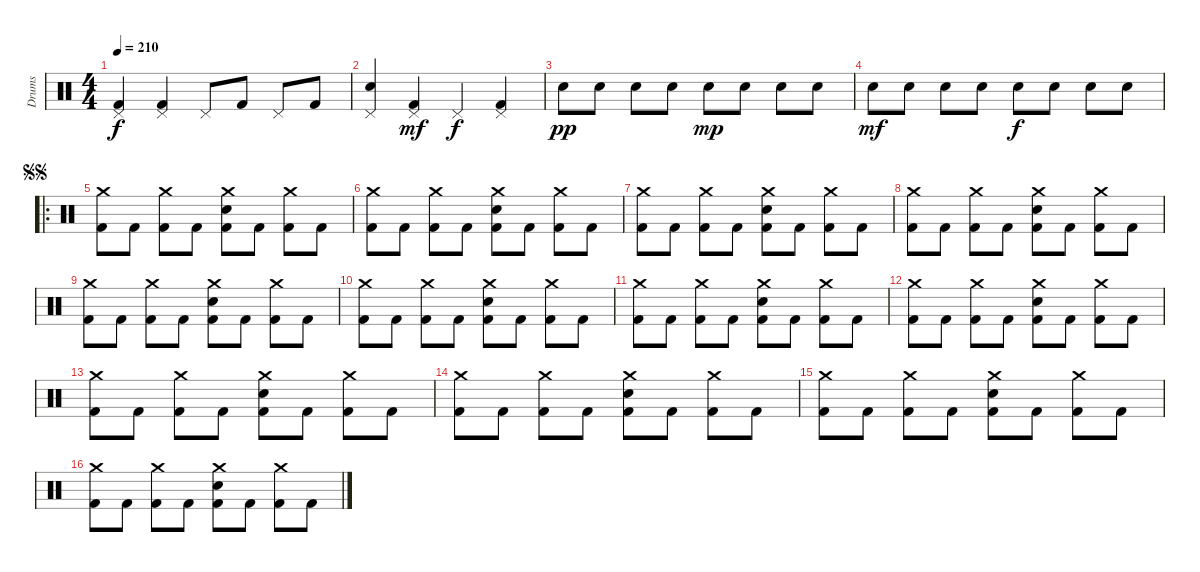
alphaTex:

\track ("Drums" "Drums") {instrument percussion}
\staff {score}
\articulation defaults
\ts (4 4)
\tempo 210
\clef neutral
\ks c
("Pedal Hi-Hat (hit)" "Kick (hit) 2").4{dy f} ("Pedal Hi-Hat (hit)" "Kick (hit) 2").4 "Pedal Hi-Hat (hit)".8 "Kick (hit) 2".8 "Pedal Hi-Hat (hit)".8 "Kick (hit) 2".8 |
("Pedal Hi-Hat (hit)" "Electric Snare (hit)").4 ("Pedal Hi-Hat (hit)" "Kick (hit) 2").4{dy mf} "Pedal Hi-Hat (hit)".4{dy f} ("Pedal Hi-Hat (hit)" "Kick (hit) 2").4 |
"Electric Snare (hit)".8{dy pp} "Electric Snare (hit)".8 "Electric Snare (hit)".8 "Electric Snare (hit)".8 "Electric Snare (hit)".8{dy mp} "Electric Snare (hit)".8 "Electric Snare (hit)".8 "Electric Snare (hit)".8 |
"Electric Snare (hit)".8{dy mf} "Electric Snare (hit)".8 "Electric Snare (hit)".8 "Electric Snare (hit)".8 "Electric Snare (hit)".8{dy f} "Electric Snare (hit)".8 "Electric Snare (hit)".8 "Electric Snare (hit)".8 |
\ro
\jump segnosegno
("Crash medium (hit)" "Kick (hit) 2").8 "Kick (hit) 2".8 ("Crash medium (hit)" "Kick (hit) 2").8 "Kick (hit) 2".8 ("Crash medium (hit)" "Electric Snare (hit)" "Kick (hit) 2").8 "Kick (hit) 2".8 ("Crash medium (hit)" "Kick (hit) 2").8 "Kick (hit) 2".8 |
("Crash medium (hit)" "Kick (hit) 2").8 "Kick (hit) 2".8 ("Crash medium (hit)" "Kick (hit) 2").8 "Kick (hit) 2".8 ("Crash medium (hit)" "Electric Snare (hit)" "Kick (hit) 2").8 "Kick (hit) 2".8 ("Crash medium (hit)" "Kick (hit) 2").8 "Kick (hit) 2".8 |
("Crash medium (hit)" "Kick (hit) 2").8 "Kick (hit) 2".8 ("Crash medium (hit)" "Kick (hit) 2").8 "Kick (hit) 2".8 ("Crash medium (hit)" "Electric Snare (hit)" "Kick (hit) 2").8 "Kick (hit) 2".8 ("Crash medium (hit)" "Kick (hit) 2").8 "Kick (hit) 2".8 |
("Crash medium (hit)" "Kick (hit) 2").8 "Kick (hit) 2".8 ("Crash medium (hit)" "Kick (hit) 2").8 "Kick (hit) 2".8 ("Crash medium (hit)" "Electric Snare (hit)" "Kick (hit) 2").8 "Kick (hit) 2".8 ("Crash medium (hit)" "Kick (hit) 2").8 "Kick (hit) 2".8 |
("Crash medium (hit)" "Kick (hit) 2").8 "Kick (hit) 2".8 ("Crash medium (hit)" "Kick (hit) 2").8 "Kick (hit) 2".8 ("Crash medium (hit)" "Electric Snare (hit)" "Kick (hit) 2").8 "Kick (hit) 2".8 ("Crash medium (hit)" "Kick (hit) 2").8 "Kick (hit) 2".8 |
("Crash medium (hit)" "Kick (hit) 2").8 "Kick (hit) 2".8 ("Crash medium (hit)" "Kick (hit) 2").8 "Kick (hit) 2".8 ("Crash medium (hit)" "Electric Snare (hit)" "Kick (hit) 2").8 "Kick (hit) 2".8 ("Crash medium (hit)" "Kick (hit) 2").8 "Kick (hit) 2".8 |
("Crash medium (hit)" "Kick (hit) 2").8 "Kick (hit) 2".8 ("Crash medium (hit)" "Kick (hit) 2").8 "Kick (hit) 2".8 ("Crash medium (hit)" "Electric Snare (hit)" "Kick (hit) 2").8 "Kick (hit) 2".8 ("Crash medium (hit)" "Kick (hit) 2").8 "Kick (hit) 2".8 |
("Crash medium (hit)" "Kick (hit) 2").8 "Kick (hit) 2".8 ("Crash medium (hit)" "Kick (hit) 2").8 "Kick (hit) 2".8 ("Crash medium (hit)" "Electric Snare (hit)" "Kick (hit) 2").8 "Kick (hit) 2".8 ("Crash medium (hit)" "Kick (hit) 2").8 "Kick (hit) 2".8 |
("Crash medium (hit)" "Kick (hit) 2").8 "Kick (hit) 2".8 ("Crash medium (hit)" "Kick (hit) 2").8 "Kick (hit) 2".8 ("Crash medium (hit)" "Electric Snare (hit)" "Kick (hit) 2").8 "Kick (hit) 2".8 ("Crash medium (hit)" "Kick (hit) 2").8 "Kick (hit) 2".8 |
("Crash medium (hit)" "Kick (hit) 2").8 "Kick (hit) 2".8 ("Crash medium (hit)" "Kick (hit) 2").8 "Kick (hit) 2".8 ("Crash medium (hit)" "Electric Snare (hit)" "Kick (hit) 2").8 "Kick (hit) 2".8 ("Crash medium (hit)" "Kick (hit) 2").8 "Kick (hit) 2".8 |
("Crash medium (hit)" "Kick (hit) 2").8 "Kick (hit) 2".8 ("Crash medium (hit)" "Kick (hit) 2").8 "Kick (hit) 2".8 ("Crash medium (hit)" "Electric Snare (hit)" "Kick (hit) 2").8 "Kick (hit) 2".8 ("Crash medium (hit)" "Kick (hit) 2").8 "Kick (hit) 2".8 |
("Crash medium (hit)" "Kick (hit) 2").8 "Kick (hit) 2".8 ("Crash medium (hit)" "Kick (hit) 2").8 "Kick (hit) 2".8 ("Crash medium (hit)" "Electric Snare (hit)" "Kick (hit) 2").8 "Kick (hit) 2".8 ("Crash medium (hit)" "Kick (hit) 2").8 "Kick (hit) 2".8
